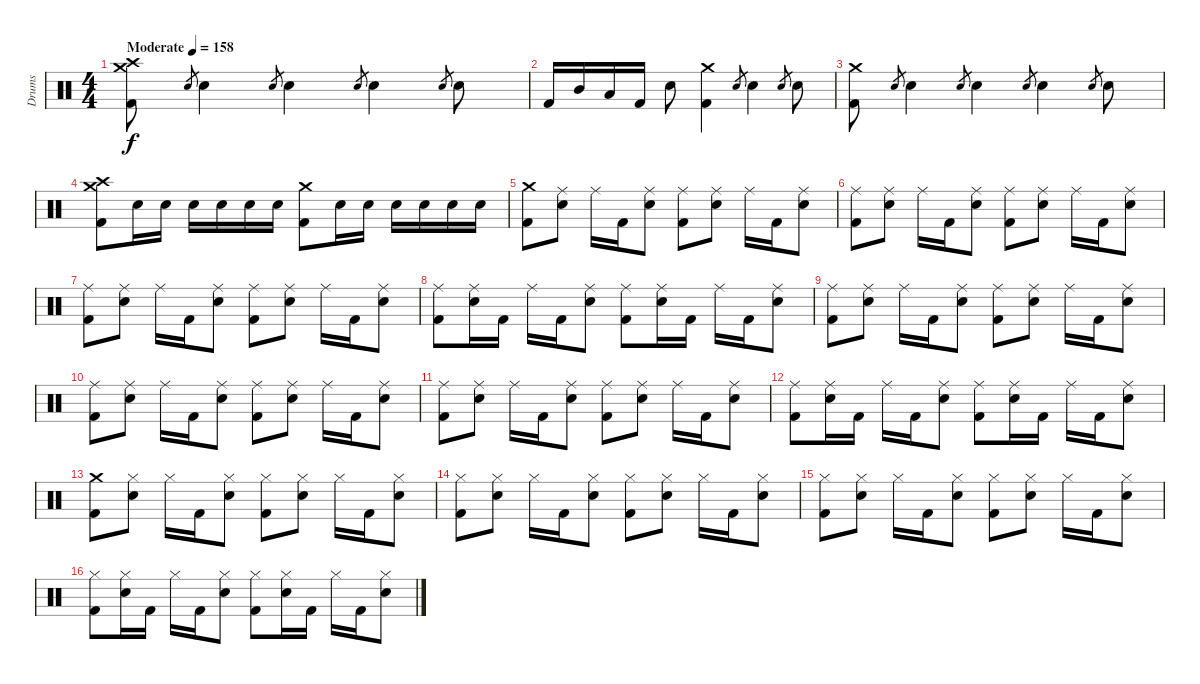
\track ("Drums" "Drums") {instrument percussion}
\staff {score}
\articulation defaults
\ts (4 4)
\tempo (158 "Moderate")
\clef neutral
\ks c
("Crash medium (hit)" "Crash high (hit)" "Kick (hit) 2").8{dy f} "Electric Snare (hit)".8{gr} "Electric Snare (hit)".4 "Electric Snare (hit)".8{gr} "Electric Snare (hit)".4 "Electric Snare (hit)".8{gr} "Electric Snare (hit)".4 "Electric Snare (hit)".8{gr} "Electric Snare (hit)".8 |
"Kick (hit) 2".16 "Mid Tom (hit)".16 "Low Tom (hit)".16 "Kick (hit) 2".16 "Electric Snare (hit)".8 ("Crash medium (hit)" "Kick (hit) 2").4 "Electric Snare (hit)".8{gr} "Electric Snare (hit)".4 "Electric Snare (hit)".8{gr} "Electric Snare (hit)".8 |
("Crash medium (hit)" "Kick (hit) 2").8 "Electric Snare (hit)".8{gr} "Electric Snare (hit)".4 "Electric Snare (hit)".8{gr} "Electric Snare (hit)".4 "Electric Snare (hit)".8{gr} "Electric Snare (hit)".4 "Electric Snare (hit)".8{gr} "Electric Snare (hit)".8 |
("Crash medium (hit)" "Crash high (hit)" "Kick (hit) 2").8 "Electric Snare (hit)".16 "Electric Snare (hit)".16 "Electric Snare (hit)".16 "Electric Snare (hit)".16 "Electric Snare (hit)".16 "Electric Snare (hit)".16 ("Crash medium (hit)" "Kick (hit) 2").8 "Electric Snare (hit)".16 "Electric Snare (hit)".16 "Electric Snare (hit)".16 "Electric Snare (hit)".16 "Electric Snare (hit)".16 "Electric Snare (hit)".16 |
("Crash medium (hit)" "Kick (hit) 2").8 ("Ride (middle)" "Electric Snare (hit)").8 "Ride (middle)".16 "Kick (hit) 2".16 ("Ride (middle)" "Electric Snare (hit)").8 ("Ride (middle)" "Kick (hit) 2").8 ("Ride (middle)" "Electric Snare (hit)").8 "Ride (middle)".16 "Kick (hit) 2".16 ("Ride (middle)" "Electric Snare (hit)").8 |
("Ride (middle)" "Kick (hit) 2").8 ("Ride (middle)" "Electric Snare (hit)").8 "Ride (middle)".16 "Kick (hit) 2".16 ("Ride (middle)" "Electric Snare (hit)").8 ("Ride (middle)" "Kick (hit) 2").8 ("Ride (middle)" "Electric Snare (hit)").8 "Ride (middle)".16 "Kick (hit) 2".16 ("Ride (middle)" "Electric Snare (hit)").8 |
("Ride (middle)" "Kick (hit) 2").8 ("Ride (middle)" "Electric Snare (hit)").8 "Ride (middle)".16 "Kick (hit) 2".16 ("Ride (middle)" "Electric Snare (hit)").8 ("Ride (middle)" "Kick (hit) 2").8 ("Ride (middle)" "Electric Snare (hit)").8 "Ride (middle)".16 "Kick (hit) 2".16 ("Ride (middle)" "Electric Snare (hit)").8 |
("Ride (middle)" "Kick (hit) 2").8 ("Ride (middle)" "Electric Snare (hit)").16 "Kick (hit) 2".16 "Ride (middle)".16 "Kick (hit) 2".16 ("Ride (middle)" "Electric Snare (hit)").8 ("Ride (middle)" "Kick (hit) 2").8 ("Ride (middle)" "Electric Snare (hit)").16 "Kick (hit) 2".16 "Ride (middle)".16 "Kick (hit) 2".16 ("Ride (middle)" "Electric Snare (hit)").8 |
("Ride (middle)" "Kick (hit) 2").8 ("Ride (middle)" "Electric Snare (hit)").8 "Ride (middle)".16 "Kick (hit) 2".16 ("Ride (middle)" "Electric Snare (hit)").8 ("Ride (middle)" "Kick (hit) 2").8 ("Ride (middle)" "Electric Snare (hit)").8 "Ride (middle)".16 "Kick (hit) 2".16 ("Ride (middle)" "Electric Snare (hit)").8 |
("Ride (middle)" "Kick (hit) 2").8 ("Ride (middle)" "Electric Snare (hit)").8 "Ride (middle)".16 "Kick (hit) 2".16 ("Ride (middle)" "Electric Snare (hit)").8 ("Ride (middle)" "Kick (hit) 2").8 ("Ride (middle)" "Electric Snare (hit)").8 "Ride (middle)".16 "Kick (hit) 2".16 ("Ride (middle)" "Electric Snare (hit)").8 |
("Ride (middle)" "Kick (hit) 2").8 ("Ride (middle)" "Electric Snare (hit)").8 "Ride (middle)".16 "Kick (hit) 2".16 ("Ride (middle)" "Electric Snare (hit)").8 ("Ride (middle)" "Kick (hit) 2").8 ("Ride (middle)" "Electric Snare (hit)").8 "Ride (middle)".16 "Kick (hit) 2".16 ("Ride (middle)" "Electric Snare (hit)").8 |
("Ride (middle)" "Kick (hit) 2").8 ("Ride (middle)" "Electric Snare (hit)").16 "Kick (hit) 2".16 "Ride (middle)".16 "Kick (hit) 2".16 ("Ride (middle)" "Electric Snare (hit)").8 ("Ride (middle)" "Kick (hit) 2").8 ("Ride (middle)" "Electric Snare (hit)").16 "Kick (hit) 2".16 "Ride (middle)".16 "Kick (hit) 2".16 ("Ride (middle)" "Electric Snare (hit)").8 |
("Crash medium (hit)" "Kick (hit) 2").8 ("Hi-Hat (closed)" "Electric Snare (hit)").8 "Hi-Hat (closed)".16 "Kick (hit) 2".16 ("Hi-Hat (closed)" "Electric Snare (hit)").8 ("Hi-Hat (closed)" "Kick (hit) 2").8 ("Hi-Hat (closed)" "Electric Snare (hit)").8 "Hi-Hat (closed)".16 "Kick (hit) 2".16 ("Hi-Hat (closed)" "Electric Snare (hit)").8 |
("Hi-Hat (closed)" "Kick (hit) 2").8 ("Hi-Hat (closed)" "Electric Snare (hit)").8 "Hi-Hat (closed)".16 "Kick (hit) 2".16 ("Hi-Hat (closed)" "Electric Snare (hit)").8 ("Hi-Hat (closed)" "Kick (hit) 2").8 ("Hi-Hat (closed)" "Electric Snare (hit)").8 "Hi-Hat (closed)".16 "Kick (hit) 2".16 ("Hi-Hat (closed)" "Electric Snare (hit)").8 |
("Hi-Hat (closed)" "Kick (hit) 2").8 ("Hi-Hat (closed)" "Electric Snare (hit)").8 "Hi-Hat (closed)".16 "Kick (hit) 2".16 ("Hi-Hat (closed)" "Electric Snare (hit)").8 ("Hi-Hat (closed)" "Kick (hit) 2").8 ("Hi-Hat (closed)" "Electric Snare (hit)").8 "Hi-Hat (closed)".16 "Kick (hit) 2".16 ("Hi-Hat (closed)" "Electric Snare (hit)").8 |
("Hi-Hat (closed)" "Kick (hit) 2").8 ("Hi-Hat (closed)" "Electric Snare (hit)").16 "Kick (hit) 2".16 "Hi-Hat (closed)".16 "Kick (hit) 2".16 ("Hi-Hat (closed)" "Electric Snare (hit)").8 ("Hi-Hat (closed)" "Kick (hit) 2").8 ("Hi-Hat (closed)" "Electric Snare (hit)").16 "Kick (hit) 2".16 "Hi-Hat (closed)".16 "Kick (hit) 2".16 ("Hi-Hat (closed)" "Electric Snare (hit)").8
